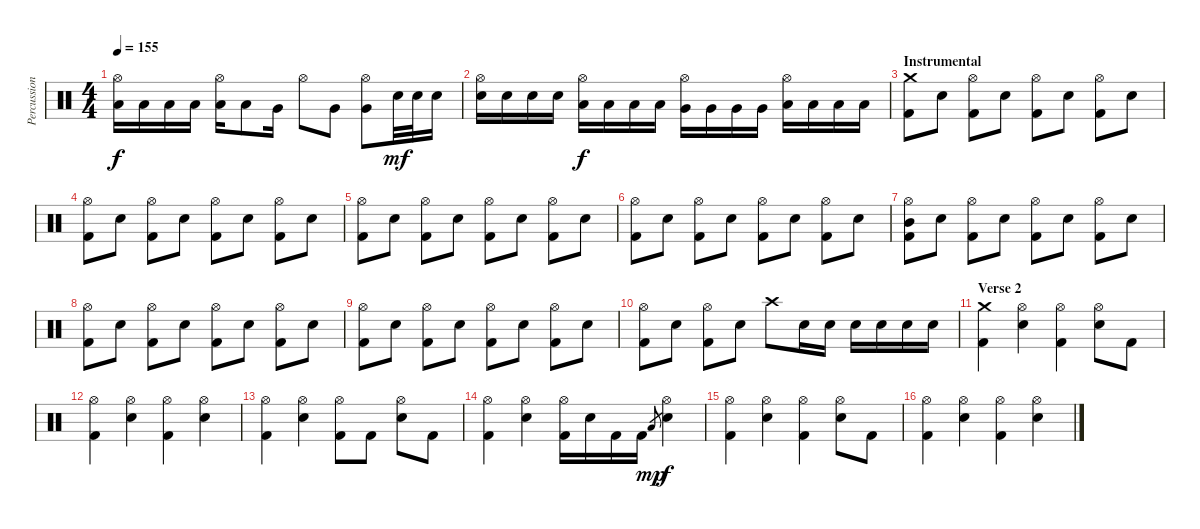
\track ("Percussion" "Percussion") {instrument percussion}
\staff {score}
\articulation defaults
\ts (4 4)
\tempo 155
\clef neutral
\ks c
("Hi-Hat (open)" "Low Tom (hit)").16{dy f} "Low Tom (hit)".16 "Low Tom (hit)".16 "Low Tom (hit)".16 ("Hi-Hat (open)" "Low Tom (hit)").16 "Low Tom (hit)".8 "Very Low Tom (hit)".16 "Hi-Hat (open)".8 "Very Low Tom (hit)".8 ("Hi-Hat (open)" "Very Low Tom (hit)").8 "Electric Snare (hit)".32{dy mf} "Electric Snare (hit)".32 "Electric Snare (hit)".16 |
("Hi-Hat (open)" "Electric Snare (hit)").16 "Electric Snare (hit)".16 "Electric Snare (hit)".16 "Electric Snare (hit)".16 ("Hi-Hat (open)" "Low Tom (hit)").16{dy f} "Low Tom (hit)".16 "Low Tom (hit)".16 "Low Tom (hit)".16 ("Hi-Hat (open)" "Very Low Tom (hit)").16 "Very Low Tom (hit)".16 "Very Low Tom (hit)".16 "Very Low Tom (hit)".16 ("Hi-Hat (open)" "Low Floor Tom (hit)").16 "Low Floor Tom (hit)".16 "Low Floor Tom (hit)".16 "Low Floor Tom (hit)".16 |
\section ("" "Instrumental")
("Crash medium (hit)" "Kick (hit) 2").8 "Electric Snare (hit)".8 ("Hi-Hat (open)" "Kick (hit) 2").8 "Electric Snare (hit)".8 ("Hi-Hat (open)" "Kick (hit) 2").8 "Electric Snare (hit)".8 ("Hi-Hat (open)" "Kick (hit) 2").8 "Electric Snare (hit)".8 |
("Hi-Hat (open)" "Kick (hit) 2").8 "Electric Snare (hit)".8 ("Hi-Hat (open)" "Kick (hit) 2").8 "Electric Snare (hit)".8 ("Hi-Hat (open)" "Kick (hit) 2").8 "Electric Snare (hit)".8 ("Hi-Hat (open)" "Kick (hit) 2").8 "Electric Snare (hit)".8 |
("Hi-Hat (open)" "Kick (hit) 2").8 "Electric Snare (hit)".8 ("Hi-Hat (open)" "Kick (hit) 2").8 "Electric Snare (hit)".8 ("Hi-Hat (open)" "Kick (hit) 2").8 "Electric Snare (hit)".8 ("Hi-Hat (open)" "Kick (hit) 2").8 "Electric Snare (hit)".8 |
("Hi-Hat (open)" "Kick (hit) 2").8 "Electric Snare (hit)".8 ("Hi-Hat (open)" "Kick (hit) 2").8 "Electric Snare (hit)".8 ("Hi-Hat (open)" "Kick (hit) 2").8 "Electric Snare (hit)".8 ("Hi-Hat (open)" "Kick (hit) 2").8 "Electric Snare (hit)".8 |
("Hi-Hat (open)" "Mid Tom (hit)" "Kick (hit) 2").8 "Electric Snare (hit)".8 ("Hi-Hat (open)" "Kick (hit) 2").8 "Electric Snare (hit)".8 ("Hi-Hat (open)" "Kick (hit) 2").8 "Electric Snare (hit)".8 ("Hi-Hat (open)" "Kick (hit) 2").8 "Electric Snare (hit)".8 |
("Hi-Hat (open)" "Kick (hit) 2").8 "Electric Snare (hit)".8 ("Hi-Hat (open)" "Kick (hit) 2").8 "Electric Snare (hit)".8 ("Hi-Hat (open)" "Kick (hit) 2").8 "Electric Snare (hit)".8 ("Hi-Hat (open)" "Kick (hit) 2").8 "Electric Snare (hit)".8 |
("Hi-Hat (open)" "Kick (hit) 2").8 "Electric Snare (hit)".8 ("Hi-Hat (open)" "Kick (hit) 2").8 "Electric Snare (hit)".8 ("Hi-Hat (open)" "Kick (hit) 2").8 "Electric Snare (hit)".8 ("Hi-Hat (open)" "Kick (hit) 2").8 "Electric Snare (hit)".8 |
("Hi-Hat (open)" "Kick (hit) 2").8 "Electric Snare (hit)".8 ("Hi-Hat (open)" "Kick (hit) 2").8 "Electric Snare (hit)".8 "Crash high (hit)".8 "Electric Snare (hit)".16 "Electric Snare (hit)".16 "Electric Snare (hit)".16 "Electric Snare (hit)".16 "Electric Snare (hit)".16 "Electric Snare (hit)".16 |
\section ("" "Verse 2")
("Crash medium (hit)" "Kick (hit) 2").4 ("Hi-Hat (open)" "Electric Snare (hit)").4 ("Hi-Hat (open)" "Kick (hit) 2").4 ("Hi-Hat (open)" "Electric Snare (hit)").8 "Kick (hit) 2".8 |
("Hi-Hat (open)" "Kick (hit) 2").4 ("Hi-Hat (open)" "Electric Snare (hit)").4 ("Hi-Hat (open)" "Kick (hit) 2").4 ("Hi-Hat (open)" "Electric Snare (hit)").4 |
("Hi-Hat (open)" "Kick (hit) 2").4 ("Hi-Hat (open)" "Electric Snare (hit)").4 ("Hi-Hat (open)" "Kick (hit) 2").8 "Kick (hit) 2".8 ("Hi-Hat (open)" "Electric Snare (hit)").8 "Kick (hit) 2".8 |
("Hi-Hat (open)" "Kick (hit) 2").4 ("Hi-Hat (open)" "Electric Snare (hit)").4 ("Hi-Hat (open)" "Kick (hit) 2").16 "Electric Snare (hit)".16 "Kick (hit) 2".16 "Kick (hit) 2".16 "Low Tom (hit)".8{gr dy mp} ("Hi-Hat (open)" "Electric Snare (hit)").4{dy f} |
("Hi-Hat (open)" "Kick (hit) 2").4 ("Hi-Hat (open)" "Electric Snare (hit)").4 ("Hi-Hat (open)" "Kick (hit) 2").4 ("Hi-Hat (open)" "Electric Snare (hit)").8 "Kick (hit) 2".8 |
("Hi-Hat (open)" "Kick (hit) 2").4 ("Hi-Hat (open)" "Electric Snare (hit)").4 ("Hi-Hat (open)" "Kick (hit) 2").4 ("Hi-Hat (open)" "Electric Snare (hit)").4
